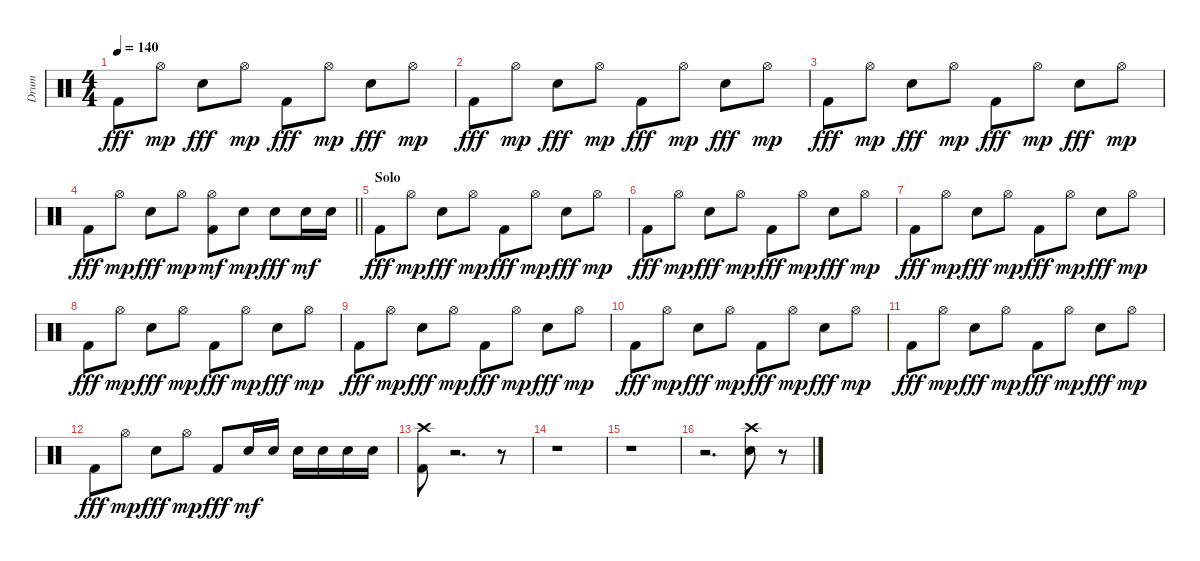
\track ("Drum" "Drum") {instrument percussion}
\staff {score}
\articulation defaults
\ts (4 4)
\tempo 140
\clef neutral
\ks c "Kick (hit) 2".8{dy fff} "Hi-Hat (open)".8{dy mp} "Electric Snare (hit)".8{dy fff} "Hi-Hat (open)".8{dy mp} "Kick (hit) 2".8{dy fff} "Hi-Hat (open)".8{dy mp} "Electric Snare (hit)".8{dy fff} "Hi-Hat (open)".8{dy mp}
|
"Kick (hit) 2".8{dy fff} "Hi-Hat (open)".8{dy mp} "Electric Snare (hit)".8{dy fff} "Hi-Hat (open)".8{dy mp} "Kick (hit) 2".8{dy fff} "Hi-Hat (open)".8{dy mp} "Electric Snare (hit)".8{dy fff} "Hi-Hat (open)".8{dy mp} |
"Kick (hit) 2".8{dy fff} "Hi-Hat (open)".8{dy mp} "Electric Snare (hit)".8{dy fff} "Hi-Hat (open)".8{dy mp} "Kick (hit) 2".8{dy fff} "Hi-Hat (open)".8{dy mp} "Electric Snare (hit)".8{dy fff} "Hi-Hat (open)".8{dy mp} |
\barLineRight lightlight "Kick (hit) 2".8{dy fff} "Hi-Hat (open)".8{dy mp} "Electric Snare (hit)".8{dy fff} "Hi-Hat (open)".8{dy mp}
("Kick (hit) 2" "Hi-Hat (open)").8{dy mf} "Electric Snare (hit)".8{dy mp} "Electric Snare (hit)".8{dy fff} "Electric Snare (hit)".16{dy mf} "Electric Snare (hit)".16 |
\section ("" "Solo")
"Kick (hit) 2".8{dy fff} "Hi-Hat (open)".8{dy mp} "Electric Snare (hit)".8{dy fff} "Hi-Hat (open)".8{dy mp} "Kick (hit) 2".8{dy fff} "Hi-Hat (open)".8{dy mp} "Electric Snare (hit)".8{dy fff} "Hi-Hat (open)".8{dy mp} |
"Kick (hit) 2".8{dy fff} "Hi-Hat (open)".8{dy mp} "Electric Snare (hit)".8{dy fff} "Hi-Hat (open)".8{dy mp} "Kick (hit) 2".8{dy fff} "Hi-Hat (open)".8{dy mp} "Electric Snare (hit)".8{dy fff} "Hi-Hat (open)".8{dy mp} |
"Kick (hit) 2".8{dy fff} "Hi-Hat (open)".8{dy mp} "Electric Snare (hit)".8{dy fff} "Hi-Hat (open)".8{dy mp} "Kick (hit) 2".8{dy fff} "Hi-Hat (open)".8{dy mp} "Electric Snare (hit)".8{dy fff} "Hi-Hat (open)".8{dy mp} |
"Kick (hit) 2".8{dy fff} "Hi-Hat (open)".8{dy mp} "Electric Snare (hit)".8{dy fff} "Hi-Hat (open)".8{dy mp} "Kick (hit) 2".8{dy fff} "Hi-Hat (open)".8{dy mp} "Electric Snare (hit)".8{dy fff} "Hi-Hat (open)".8{dy mp} |
"Kick (hit) 2".8{dy fff} "Hi-Hat (open)".8{dy mp} "Electric Snare (hit)".8{dy fff} "Hi-Hat (open)".8{dy mp} "Kick (hit) 2".8{dy fff} "Hi-Hat (open)".8{dy mp} "Electric Snare (hit)".8{dy fff} "Hi-Hat (open)".8{dy mp} |
"Kick (hit) 2".8{dy fff} "Hi-Hat (open)".8{dy mp} "Electric Snare (hit)".8{dy fff} "Hi-Hat (open)".8{dy mp} "Kick (hit) 2".8{dy fff} "Hi-Hat (open)".8{dy mp} "Electric Snare (hit)".8{dy fff} "Hi-Hat (open)".8{dy mp} |
"Kick (hit) 2".8{dy fff} "Hi-Hat (open)".8{dy mp} "Electric Snare (hit)".8{dy fff} "Hi-Hat (open)".8{dy mp} "Kick (hit) 2".8{dy fff} "Hi-Hat (open)".8{dy mp} "Electric Snare (hit)".8{dy fff} "Hi-Hat (open)".8{dy mp} |
"Kick (hit) 2".8{dy fff} "Hi-Hat (open)".8{dy mp} "Electric Snare (hit)".8{dy fff} "Hi-Hat (open)".8{dy mp} "Kick (hit) 2".8{dy fff} "Electric Snare (hit)".16{dy mf} "Electric Snare (hit)".16 "Electric Snare (hit)".16 "Electric Snare (hit)".16 "Electric Snare (hit)".16 "Electric Snare (hit)".16 |
("Kick (hit) 2" "Crash high (hit)").8 r.2{d} r.8 |
r.1 |
r.1 |
r.2{d} ("Electric Snare (hit)" "Crash high (hit)").8 r.8
